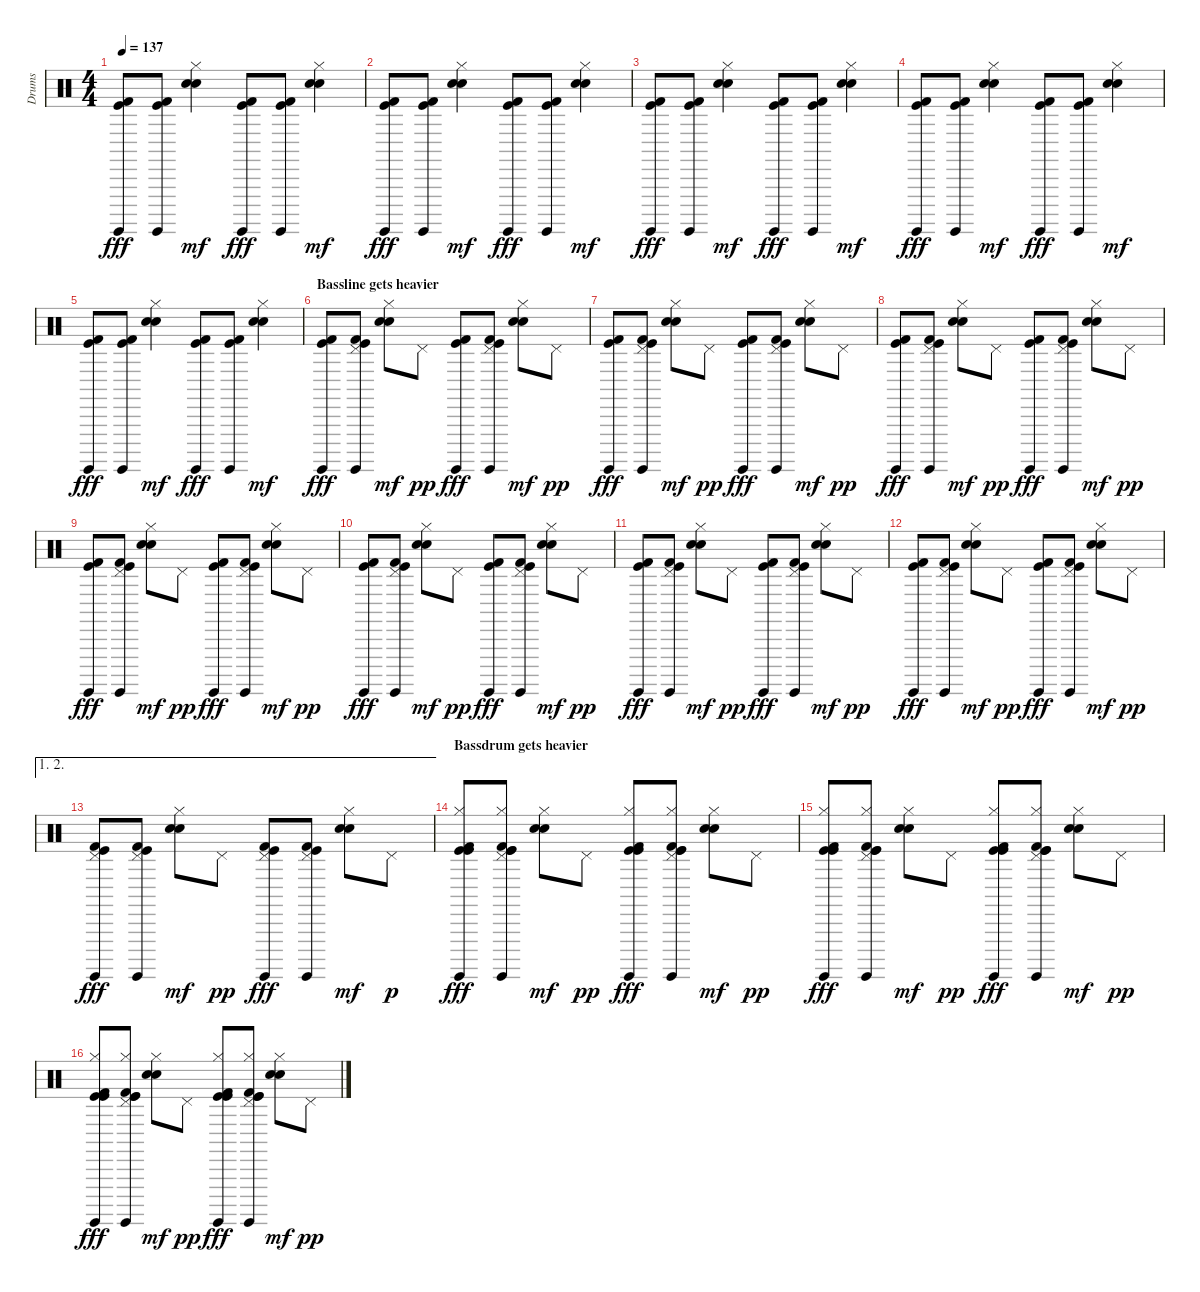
\track ("Drums" "Drums") {instrument percussion}
\staff {score}
\articulation defaults
\ts (4 4)
\tempo 137
\clef neutral
\ks c
("Surdo (hit)" "Kick (hit) 2" "Kick (hit)").8{dy fff} ("Surdo (hit)" "Kick (hit) 2" "Kick (hit)").8 ("Hi-Hat (closed)" "Hand Clap (hit)" "Snare (hit) 2").4{dy mf} ("Surdo (hit)" "Kick (hit) 2" "Kick (hit)").8{dy fff} ("Surdo (hit)" "Kick (hit) 2" "Kick (hit)").8 ("Hi-Hat (closed)" "Hand Clap (hit)" "Snare (hit) 2").4{dy mf} |
("Surdo (hit)" "Kick (hit) 2" "Kick (hit)").8{dy fff} ("Surdo (hit)" "Kick (hit) 2" "Kick (hit)").8 ("Hi-Hat (closed)" "Hand Clap (hit)" "Snare (hit) 2").4{dy mf} ("Surdo (hit)" "Kick (hit) 2" "Kick (hit)").8{dy fff} ("Surdo (hit)" "Kick (hit) 2" "Kick (hit)").8 ("Hi-Hat (closed)" "Hand Clap (hit)" "Snare (hit) 2").4{dy mf} |
("Surdo (hit)" "Kick (hit) 2" "Kick (hit)").8{dy fff} ("Surdo (hit)" "Kick (hit) 2" "Kick (hit)").8 ("Hi-Hat (closed)" "Hand Clap (hit)" "Snare (hit) 2").4{dy mf} ("Surdo (hit)" "Kick (hit) 2" "Kick (hit)").8{dy fff} ("Surdo (hit)" "Kick (hit) 2" "Kick (hit)").8 ("Hi-Hat (closed)" "Hand Clap (hit)" "Snare (hit) 2").4{dy mf} |
("Surdo (hit)" "Kick (hit) 2" "Kick (hit)").8{dy fff} ("Surdo (hit)" "Kick (hit) 2" "Kick (hit)").8 ("Hi-Hat (closed)" "Hand Clap (hit)" "Snare (hit) 2").4{dy mf} ("Surdo (hit)" "Kick (hit) 2" "Kick (hit)").8{dy fff} ("Surdo (hit)" "Kick (hit) 2" "Kick (hit)").8 ("Hi-Hat (closed)" "Hand Clap (hit)" "Snare (hit) 2").4{dy mf} |
("Surdo (hit)" "Kick (hit) 2" "Kick (hit)").8{dy fff} ("Surdo (hit)" "Kick (hit) 2" "Kick (hit)").8 ("Hi-Hat (closed)" "Hand Clap (hit)" "Snare (hit) 2").4{dy mf} ("Surdo (hit)" "Kick (hit) 2" "Kick (hit)").8{dy fff} ("Surdo (hit)" "Kick (hit) 2" "Kick (hit)").8 ("Hi-Hat (closed)" "Hand Clap (hit)" "Snare (hit) 2").4{dy mf} |
\section ("" "Bassline gets heavier")
("Surdo (hit)" "Kick (hit) 2" "Kick (hit)").8{dy fff} ("Pedal Hi-Hat (hit)" "Surdo (hit)" "Kick (hit) 2" "Kick (hit)").8 ("Hi-Hat (closed)" "Hand Clap (hit)" "Snare (hit) 2").8{dy mf} "Pedal Hi-Hat (hit)".8{dy pp} ("Surdo (hit)" "Kick (hit) 2" "Kick (hit)").8{dy fff} ("Pedal Hi-Hat (hit)" "Surdo (hit)" "Kick (hit) 2" "Kick (hit)").8 ("Hi-Hat (closed)" "Hand Clap (hit)" "Snare (hit) 2").8{dy mf} "Pedal Hi-Hat (hit)".8{dy pp} |
("Surdo (hit)" "Kick (hit) 2" "Kick (hit)").8{dy fff} ("Pedal Hi-Hat (hit)" "Surdo (hit)" "Kick (hit) 2" "Kick (hit)").8 ("Hi-Hat (closed)" "Hand Clap (hit)" "Snare (hit) 2").8{dy mf} "Pedal Hi-Hat (hit)".8{dy pp} ("Surdo (hit)" "Kick (hit) 2" "Kick (hit)").8{dy fff} ("Pedal Hi-Hat (hit)" "Surdo (hit)" "Kick (hit) 2" "Kick (hit)").8 ("Hi-Hat (closed)" "Hand Clap (hit)" "Snare (hit) 2").8{dy mf} "Pedal Hi-Hat (hit)".8{dy pp} |
("Surdo (hit)" "Kick (hit) 2" "Kick (hit)").8{dy fff} ("Pedal Hi-Hat (hit)" "Surdo (hit)" "Kick (hit) 2" "Kick (hit)").8 ("Hi-Hat (closed)" "Hand Clap (hit)" "Snare (hit) 2").8{dy mf} "Pedal Hi-Hat (hit)".8{dy pp} ("Surdo (hit)" "Kick (hit) 2" "Kick (hit)").8{dy fff} ("Pedal Hi-Hat (hit)" "Surdo (hit)" "Kick (hit) 2" "Kick (hit)").8 ("Hi-Hat (closed)" "Hand Clap (hit)" "Snare (hit) 2").8{dy mf} "Pedal Hi-Hat (hit)".8{dy pp} |
("Surdo (hit)" "Kick (hit) 2" "Kick (hit)").8{dy fff} ("Pedal Hi-Hat (hit)" "Surdo (hit)" "Kick (hit) 2" "Kick (hit)").8 ("Hi-Hat (closed)" "Hand Clap (hit)" "Snare (hit) 2").8{dy mf} "Pedal Hi-Hat (hit)".8{dy pp} ("Surdo (hit)" "Kick (hit) 2" "Kick (hit)").8{dy fff} ("Pedal Hi-Hat (hit)" "Surdo (hit)" "Kick (hit) 2" "Kick (hit)").8 ("Hi-Hat (closed)" "Hand Clap (hit)" "Snare (hit) 2").8{dy mf} "Pedal Hi-Hat (hit)".8{dy pp} |
("Surdo (hit)" "Kick (hit) 2" "Kick (hit)").8{dy fff} ("Pedal Hi-Hat (hit)" "Surdo (hit)" "Kick (hit) 2" "Kick (hit)").8 ("Hi-Hat (closed)" "Hand Clap (hit)" "Snare (hit) 2").8{dy mf} "Pedal Hi-Hat (hit)".8{dy pp} ("Surdo (hit)" "Kick (hit) 2" "Kick (hit)").8{dy fff} ("Pedal Hi-Hat (hit)" "Surdo (hit)" "Kick (hit) 2" "Kick (hit)").8 ("Hi-Hat (closed)" "Hand Clap (hit)" "Snare (hit) 2").8{dy mf} "Pedal Hi-Hat (hit)".8{dy pp} |
("Surdo (hit)" "Kick (hit) 2" "Kick (hit)").8{dy fff} ("Pedal Hi-Hat (hit)" "Surdo (hit)" "Kick (hit) 2" "Kick (hit)").8 ("Hi-Hat (closed)" "Hand Clap (hit)" "Snare (hit) 2").8{dy mf} "Pedal Hi-Hat (hit)".8{dy pp} ("Surdo (hit)" "Kick (hit) 2" "Kick (hit)").8{dy fff} ("Pedal Hi-Hat (hit)" "Surdo (hit)" "Kick (hit) 2" "Kick (hit)").8 ("Hi-Hat (closed)" "Hand Clap (hit)" "Snare (hit) 2").8{dy mf} "Pedal Hi-Hat (hit)".8{dy pp} |
("Surdo (hit)" "Kick (hit) 2" "Kick (hit)").8{dy fff} ("Pedal Hi-Hat (hit)" "Surdo (hit)" "Kick (hit) 2" "Kick (hit)").8 ("Hi-Hat (closed)" "Hand Clap (hit)" "Snare (hit) 2").8{dy mf} "Pedal Hi-Hat (hit)".8{dy pp} ("Surdo (hit)" "Kick (hit) 2" "Kick (hit)").8{dy fff} ("Pedal Hi-Hat (hit)" "Surdo (hit)" "Kick (hit) 2" "Kick (hit)").8 ("Hi-Hat (closed)" "Hand Clap (hit)" "Snare (hit) 2").8{dy mf} "Pedal Hi-Hat (hit)".8{dy pp} |
\ae (1 2)
("Pedal Hi-Hat (hit)" "Surdo (hit)" "Kick (hit) 2" "Kick (hit)").8{dy fff} ("Pedal Hi-Hat (hit)" "Surdo (hit)" "Kick (hit) 2" "Kick (hit)").8 ("Hi-Hat (closed)" "Hand Clap (hit)" "Snare (hit) 2").8{dy mf} "Pedal Hi-Hat (hit)".8{dy pp} ("Pedal Hi-Hat (hit)" "Surdo (hit)" "Kick (hit) 2" "Kick (hit)").8{dy fff} ("Pedal Hi-Hat (hit)" "Surdo (hit)" "Kick (hit) 2" "Kick (hit)").8 ("Hi-Hat (closed)" "Hand Clap (hit)" "Snare (hit) 2").8{dy mf} "Pedal Hi-Hat (hit)".8{dy p} |
\section ("" "Bassdrum gets heavier")
("Hi-Hat (closed)" "Kick (hit)" "Surdo (hit)" "Kick (hit) 2" "Kick (hit)").8{dy fff volume 15} ("Pedal Hi-Hat (hit)" "Hi-Hat (closed)" "Kick (hit)" "Surdo (hit)" "Kick (hit) 2" "Kick (hit)").8 ("Hi-Hat (closed)" "Hand Clap (hit)" "Snare (hit) 2").8{dy mf} "Pedal Hi-Hat (hit)".8{dy pp} ("Hi-Hat (closed)" "Kick (hit)" "Surdo (hit)" "Kick (hit) 2" "Kick (hit)").8{dy fff} ("Pedal Hi-Hat (hit)" "Hi-Hat (closed)" "Kick (hit)" "Surdo (hit)" "Kick (hit) 2" "Kick (hit)").8 ("Hi-Hat (closed)" "Hand Clap (hit)" "Snare (hit) 2").8{dy mf} "Pedal Hi-Hat (hit)".8{dy pp} |
("Hi-Hat (closed)" "Kick (hit)" "Surdo (hit)" "Kick (hit) 2" "Kick (hit)").8{dy fff} ("Pedal Hi-Hat (hit)" "Hi-Hat (closed)" "Kick (hit)" "Surdo (hit)" "Kick (hit) 2" "Kick (hit)").8 ("Hi-Hat (closed)" "Hand Clap (hit)" "Snare (hit) 2").8{dy mf} "Pedal Hi-Hat (hit)".8{dy pp} ("Hi-Hat (closed)" "Kick (hit)" "Surdo (hit)" "Kick (hit) 2" "Kick (hit)").8{dy fff} ("Pedal Hi-Hat (hit)" "Hi-Hat (closed)" "Kick (hit)" "Surdo (hit)" "Kick (hit) 2" "Kick (hit)").8 ("Hi-Hat (closed)" "Hand Clap (hit)" "Snare (hit) 2").8{dy mf} "Pedal Hi-Hat (hit)".8{dy pp} |
("Hi-Hat (closed)" "Kick (hit)" "Surdo (hit)" "Kick (hit) 2" "Kick (hit)").8{dy fff} ("Pedal Hi-Hat (hit)" "Hi-Hat (closed)" "Kick (hit)" "Surdo (hit)" "Kick (hit) 2" "Kick (hit)").8 ("Hi-Hat (closed)" "Hand Clap (hit)" "Snare (hit) 2").8{dy mf} "Pedal Hi-Hat (hit)".8{dy pp} ("Hi-Hat (closed)" "Kick (hit)" "Surdo (hit)" "Kick (hit) 2" "Kick (hit)").8{dy fff} ("Pedal Hi-Hat (hit)" "Hi-Hat (closed)" "Kick (hit)" "Surdo (hit)" "Kick (hit) 2" "Kick (hit)").8 ("Hi-Hat (closed)" "Hand Clap (hit)" "Snare (hit) 2").8{dy mf} "Pedal Hi-Hat (hit)".8{dy pp}
